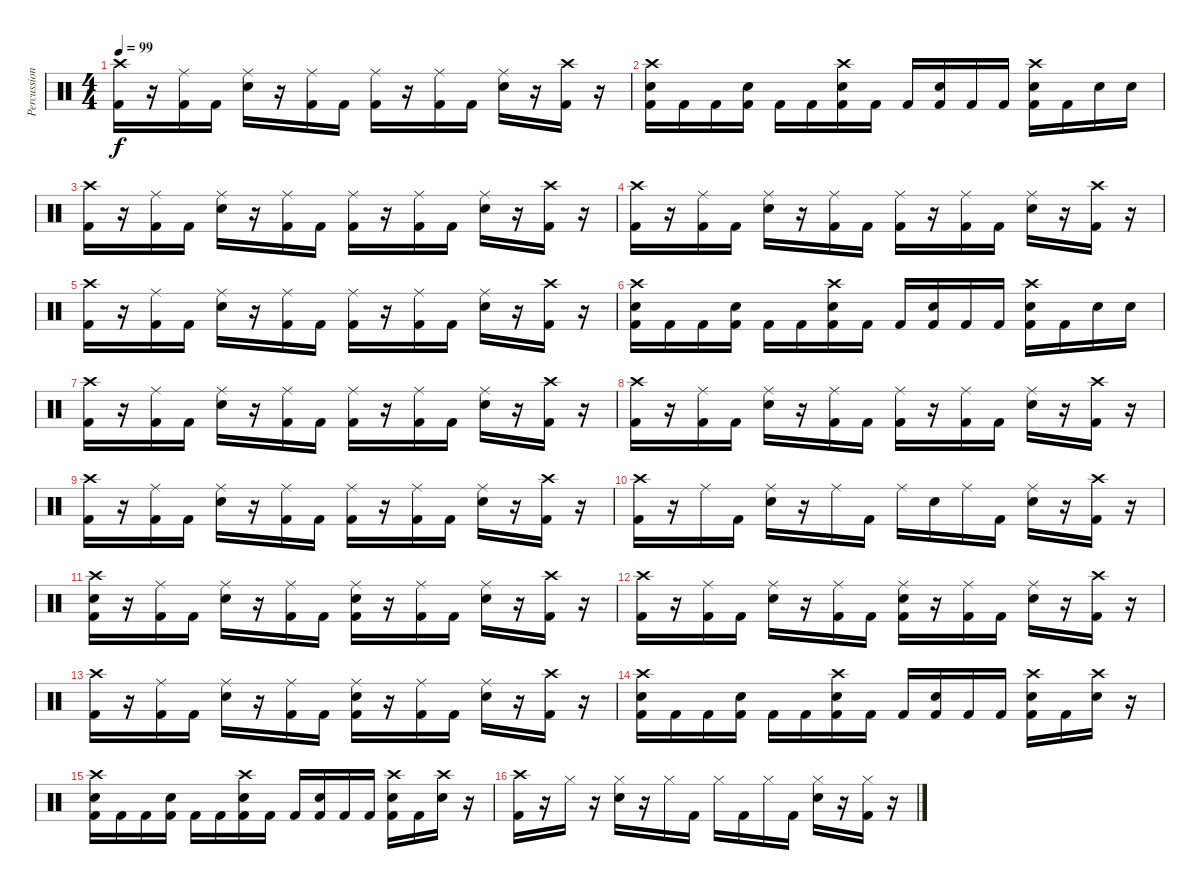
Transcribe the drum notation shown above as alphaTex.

\track ("Percussion" "Percussion") {instrument percussion}
\staff {score}
\articulation defaults
\ts (4 4)
\tempo 99
\clef neutral
\ks c
("Crash high (hit)" "Kick (hit) 2").16{dy f} r.16 ("Ride (middle)" "Kick (hit) 2").16 "Kick (hit) 2".16 ("Ride (middle)" "Snare (hit) 2").16 r.16 ("Ride (middle)" "Kick (hit) 2").16 "Kick (hit) 2".16 ("Ride (middle)" "Kick (hit) 2").16 r.16 ("Ride (middle)" "Kick (hit) 2").16 "Kick (hit) 2".16 ("Ride (middle)" "Snare (hit) 2").16 r.16 ("Crash high (hit)" "Kick (hit) 2").16 r.16 |
("Crash high (hit)" "Snare (hit) 2" "Kick (hit) 2").16 "Kick (hit) 2".16 "Kick (hit) 2".16 ("Snare (hit) 2" "Kick (hit) 2").16 "Kick (hit) 2".16 "Kick (hit) 2".16 ("Crash high (hit)" "Snare (hit) 2" "Kick (hit) 2").16 "Kick (hit) 2".16 "Kick (hit) 2".16 ("Snare (hit) 2" "Kick (hit) 2").16 "Kick (hit) 2".16 "Kick (hit) 2".16 ("Crash high (hit)" "Snare (hit) 2" "Kick (hit) 2").16 "Kick (hit) 2".16 "Snare (hit) 2".16 "Snare (hit) 2".16 |
("Crash high (hit)" "Kick (hit) 2").16 r.16 ("Ride (middle)" "Kick (hit) 2").16 "Kick (hit) 2".16 ("Ride (middle)" "Snare (hit) 2").16 r.16 ("Ride (middle)" "Kick (hit) 2").16 "Kick (hit) 2".16 ("Ride (middle)" "Kick (hit) 2").16 r.16 ("Ride (middle)" "Kick (hit) 2").16 "Kick (hit) 2".16 ("Ride (middle)" "Snare (hit) 2").16 r.16 ("Crash high (hit)" "Kick (hit) 2").16 r.16 |
("Crash high (hit)" "Kick (hit) 2").16 r.16 ("Ride (middle)" "Kick (hit) 2").16 "Kick (hit) 2".16 ("Ride (middle)" "Snare (hit) 2").16 r.16 ("Ride (middle)" "Kick (hit) 2").16 "Kick (hit) 2".16 ("Ride (middle)" "Kick (hit) 2").16 r.16 ("Ride (middle)" "Kick (hit) 2").16 "Kick (hit) 2".16 ("Ride (middle)" "Snare (hit) 2").16 r.16 ("Crash high (hit)" "Kick (hit) 2").16 r.16 |
("Crash high (hit)" "Kick (hit) 2").16 r.16 ("Ride (middle)" "Kick (hit) 2").16 "Kick (hit) 2".16 ("Ride (middle)" "Snare (hit) 2").16 r.16 ("Ride (middle)" "Kick (hit) 2").16 "Kick (hit) 2".16 ("Ride (middle)" "Kick (hit) 2").16 r.16 ("Ride (middle)" "Kick (hit) 2").16 "Kick (hit) 2".16 ("Ride (middle)" "Snare (hit) 2").16 r.16 ("Crash high (hit)" "Kick (hit) 2").16 r.16 |
("Crash high (hit)" "Snare (hit) 2" "Kick (hit) 2").16 "Kick (hit) 2".16 "Kick (hit) 2".16 ("Snare (hit) 2" "Kick (hit) 2").16 "Kick (hit) 2".16 "Kick (hit) 2".16 ("Crash high (hit)" "Snare (hit) 2" "Kick (hit) 2").16 "Kick (hit) 2".16 "Kick (hit) 2".16 ("Snare (hit) 2" "Kick (hit) 2").16 "Kick (hit) 2".16 "Kick (hit) 2".16 ("Crash high (hit)" "Snare (hit) 2" "Kick (hit) 2").16 "Kick (hit) 2".16 "Snare (hit) 2".16 "Snare (hit) 2".16 |
("Crash high (hit)" "Kick (hit) 2").16 r.16 ("Ride (middle)" "Kick (hit) 2").16 "Kick (hit) 2".16 ("Ride (middle)" "Snare (hit) 2").16 r.16 ("Ride (middle)" "Kick (hit) 2").16 "Kick (hit) 2".16 ("Ride (middle)" "Kick (hit) 2").16 r.16 ("Ride (middle)" "Kick (hit) 2").16 "Kick (hit) 2".16 ("Ride (middle)" "Snare (hit) 2").16 r.16 ("Crash high (hit)" "Kick (hit) 2").16 r.16 |
("Crash high (hit)" "Kick (hit) 2").16 r.16 ("Ride (middle)" "Kick (hit) 2").16 "Kick (hit) 2".16 ("Ride (middle)" "Snare (hit) 2").16 r.16 ("Ride (middle)" "Kick (hit) 2").16 "Kick (hit) 2".16 ("Ride (middle)" "Kick (hit) 2").16 r.16 ("Ride (middle)" "Kick (hit) 2").16 "Kick (hit) 2".16 ("Ride (middle)" "Snare (hit) 2").16 r.16 ("Crash high (hit)" "Kick (hit) 2").16 r.16 |
("Crash high (hit)" "Kick (hit) 2").16 r.16 ("Ride (middle)" "Kick (hit) 2").16 "Kick (hit) 2".16 ("Ride (middle)" "Snare (hit) 2").16 r.16 ("Ride (middle)" "Kick (hit) 2").16 "Kick (hit) 2".16 ("Ride (middle)" "Kick (hit) 2").16 r.16 ("Ride (middle)" "Kick (hit) 2").16 "Kick (hit) 2".16 ("Ride (middle)" "Snare (hit) 2").16 r.16 ("Crash high (hit)" "Kick (hit) 2").16 r.16 |
("Crash high (hit)" "Kick (hit) 2").16 r.16 "Ride (middle)".16 "Kick (hit) 2".16 ("Ride (middle)" "Snare (hit) 2").16 r.16 "Ride (middle)".16 "Kick (hit) 2".16 "Ride (middle)".16 "Snare (hit) 2".16 "Ride (middle)".16 "Kick (hit) 2".16 ("Ride (middle)" "Snare (hit) 2").16 r.16 ("Crash high (hit)" "Kick (hit) 2").16 r.16 |
("Crash high (hit)" "Snare (hit) 2" "Kick (hit) 2").16 r.16 ("Ride (middle)" "Kick (hit) 2").16 "Kick (hit) 2".16 ("Ride (middle)" "Snare (hit) 2").16 r.16 ("Ride (middle)" "Kick (hit) 2").16 "Kick (hit) 2".16 ("Ride (middle)" "Snare (hit) 2" "Kick (hit) 2").16 r.16 ("Ride (middle)" "Kick (hit) 2").16 "Kick (hit) 2".16 ("Ride (middle)" "Snare (hit) 2").16 r.16 ("Crash high (hit)" "Kick (hit) 2").16 r.16 |
("Crash high (hit)" "Kick (hit) 2").16 r.16 ("Ride (middle)" "Kick (hit) 2").16 "Kick (hit) 2".16 ("Ride (middle)" "Snare (hit) 2").16 r.16 ("Ride (middle)" "Kick (hit) 2").16 "Kick (hit) 2".16 ("Ride (middle)" "Snare (hit) 2" "Kick (hit) 2").16 r.16 ("Ride (middle)" "Kick (hit) 2").16 "Kick (hit) 2".16 ("Ride (middle)" "Snare (hit) 2").16 r.16 ("Crash high (hit)" "Kick (hit) 2").16 r.16 |
("Crash high (hit)" "Kick (hit) 2").16 r.16 ("Ride (middle)" "Kick (hit) 2").16 "Kick (hit) 2".16 ("Ride (middle)" "Snare (hit) 2").16 r.16 ("Ride (middle)" "Kick (hit) 2").16 "Kick (hit) 2".16 ("Ride (middle)" "Snare (hit) 2" "Kick (hit) 2").16 r.16 ("Ride (middle)" "Kick (hit) 2").16 "Kick (hit) 2".16 ("Ride (middle)" "Snare (hit) 2").16 r.16 ("Crash high (hit)" "Kick (hit) 2").16 r.16 |
("Crash high (hit)" "Snare (hit) 2" "Kick (hit) 2").16 "Kick (hit) 2".16 "Kick (hit) 2".16 ("Snare (hit) 2" "Kick (hit) 2").16 "Kick (hit) 2".16 "Kick (hit) 2".16 ("Crash high (hit)" "Snare (hit) 2" "Kick (hit) 2").16 "Kick (hit) 2".16 "Kick (hit) 2".16 ("Snare (hit) 2" "Kick (hit) 2").16 "Kick (hit) 2".16 "Kick (hit) 2".16 ("Crash high (hit)" "Snare (hit) 2" "Kick (hit) 2").16 "Kick (hit) 2".16 ("Crash high (hit)" "Snare (hit) 2").16 r.16 |
("Crash high (hit)" "Snare (hit) 2" "Kick (hit) 2").16 "Kick (hit) 2".16 "Kick (hit) 2".16 ("Snare (hit) 2" "Kick (hit) 2").16 "Kick (hit) 2".16 "Kick (hit) 2".16 ("Crash high (hit)" "Snare (hit) 2" "Kick (hit) 2").16 "Kick (hit) 2".16 "Kick (hit) 2".16 ("Snare (hit) 2" "Kick (hit) 2").16 "Kick (hit) 2".16 "Kick (hit) 2".16 ("Crash high (hit)" "Snare (hit) 2" "Kick (hit) 2").16 "Kick (hit) 2".16 ("Crash high (hit)" "Snare (hit) 2").16 r.16 |
("Crash high (hit)" "Kick (hit) 2").16 r.16 "Hi-Hat (closed)".16 r.16 ("Hi-Hat (closed)" "Snare (hit) 2").16 r.16 "Hi-Hat (closed)".16 "Kick (hit) 2".16 "Hi-Hat (closed)".16 "Kick (hit) 2".16 "Hi-Hat (closed)".16 "Kick (hit) 2".16 ("Hi-Hat (closed)" "Snare (hit) 2").16 r.16 ("Hi-Hat (closed)" "Kick (hit) 2").16 r.16
